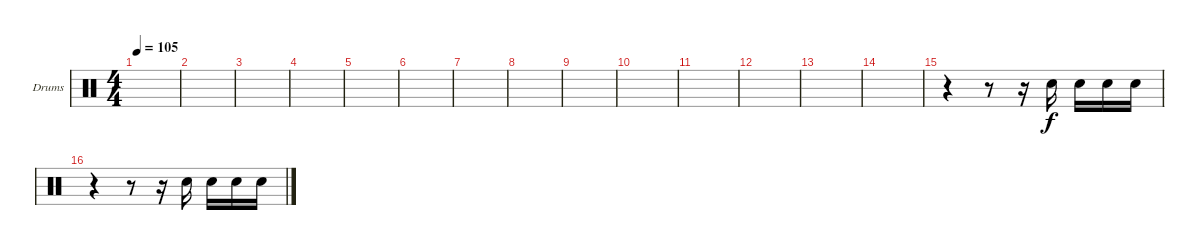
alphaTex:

\defaultSystemsLayout 4
\bracketExtendMode groupsimilarinstruments
\firstSystemTrackNameOrientation horizontal
\otherSystemsTrackNameOrientation horizontal
\track ("Drumkit" "Drums") {instrument percussion}
\staff {score}
\articulation defaults
\ts (4 4)
\tempo 105
\clef neutral
\scale
0.333333
\ks c
|
\scale
0.333333 |
\scale
0.333333 |
\scale
0.333333 |
\scale
0.333333 |
\scale
0.333333 |
\scale
0.333333 |
\scale
0.333333 |
\scale
0.333333 |
\scale
0.333333 |
\scale
0.333333 |
\scale
0.333333 |
\scale
0.333333 |
\scale
0.333333 |
\scale
0.333333 r.4 r.8 r.16 "Snare (hit) 2".16 "Snare (hit) 2".16 "Snare (hit) 2".16 "Snare (hit) 2".16 |
\scale
0.333333 r.4 r.8 r.16 "Snare (hit) 2".16 "Snare (hit) 2".16 "Snare (hit) 2".16 "Snare (hit) 2".16
